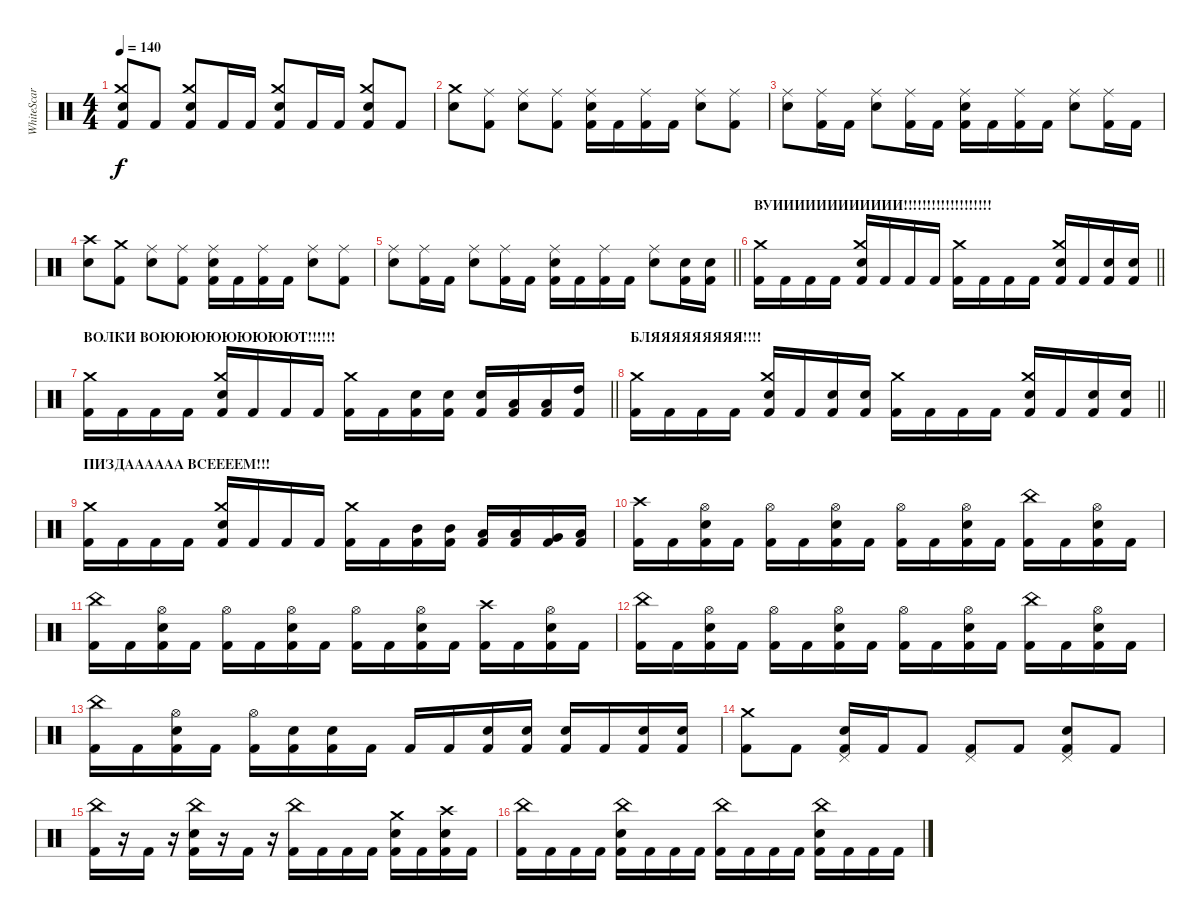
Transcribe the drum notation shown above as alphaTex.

\track ("WhiteScar " "WhiteScar ") {instrument percussion}
\staff {score}
\articulation defaults
\ts (4 4)
\tempo 140
\clef neutral
\ks c
("Snare (hit) 2" "Crash medium (hit)" "Kick (hit) 2").8{dy f} "Kick (hit) 2".8 ("Snare (hit) 2" "Crash medium (hit)" "Kick (hit) 2").8 "Kick (hit) 2".16 "Kick (hit) 2".16 ("Snare (hit) 2" "Crash medium (hit)" "Kick (hit) 2").8 "Kick (hit) 2".16 "Kick (hit) 2".16 ("Snare (hit) 2" "Crash medium (hit)" "Kick (hit) 2").8 "Kick (hit) 2".8 |
("Crash medium (hit)" "Snare (hit) 2").8 ("Ride (middle)" "Kick (hit) 2").8 ("Ride (middle)" "Snare (hit) 2").8 ("Ride (middle)" "Kick (hit) 2").8 ("Ride (middle)" "Snare (hit) 2" "Kick (hit) 2").16 "Kick (hit) 2".16 ("Ride (middle)" "Kick (hit) 2").16 "Kick (hit) 2".16 ("Ride (middle)" "Snare (hit) 2").8 ("Ride (middle)" "Kick (hit) 2").8 |
("Ride (middle)" "Snare (hit) 2").8 ("Ride (middle)" "Kick (hit) 2").16 "Kick (hit) 2".16 ("Ride (middle)" "Snare (hit) 2").8 ("Ride (middle)" "Kick (hit) 2").16 "Kick (hit) 2".16 ("Ride (middle)" "Snare (hit) 2" "Kick (hit) 2").16 "Kick (hit) 2".16 ("Ride (middle)" "Kick (hit) 2").16 "Kick (hit) 2".16 ("Ride (middle)" "Snare (hit) 2").8 ("Ride (middle)" "Kick (hit) 2").16 "Kick (hit) 2".16 |
("Crash high (hit)" "Snare (hit) 2").8 ("Crash medium (hit)" "Kick (hit) 2").8 ("Ride (middle)" "Snare (hit) 2").8 ("Ride (middle)" "Kick (hit) 2").8 ("Ride (middle)" "Snare (hit) 2" "Kick (hit) 2").16 "Kick (hit) 2".16 ("Ride (middle)" "Kick (hit) 2").16 "Kick (hit) 2".16 ("Ride (middle)" "Snare (hit) 2").8 ("Ride (middle)" "Kick (hit) 2").8 |
\barLineRight lightlight
("Ride (middle)" "Snare (hit) 2").8 ("Ride (middle)" "Kick (hit) 2").16 "Kick (hit) 2".16 ("Ride (middle)" "Snare (hit) 2").8 ("Ride (middle)" "Kick (hit) 2").16 "Kick (hit) 2".16 ("Ride (middle)" "Snare (hit) 2" "Kick (hit) 2").16 "Kick (hit) 2".16 ("Ride (middle)" "Kick (hit) 2").16 "Kick (hit) 2".16 ("Ride (middle)" "Snare (hit) 2").8 ("Snare (hit) 2" "Kick (hit) 2").16 ("Snare (hit) 2" "Kick (hit) 2").16 |
\section ("" "ВУИИИИИИИИИИИИ!!!!!!!!!!!!!!!!!!!")
\barLineRight lightlight
("Crash medium (hit)" "Kick (hit) 2").16 "Kick (hit) 2".16 "Kick (hit) 2".16 "Kick (hit) 2".16 ("Snare (hit) 2" "Crash medium (hit)" "Kick (hit) 2").16 "Kick (hit) 2".16 "Kick (hit) 2".16 "Kick (hit) 2".16 ("Crash medium (hit)" "Kick (hit) 2").16 "Kick (hit) 2".16 "Kick (hit) 2".16 "Kick (hit) 2".16 ("Snare (hit) 2" "Crash medium (hit)" "Kick (hit) 2").16 "Kick (hit) 2".16 ("Snare (hit) 2" "Kick (hit) 2").16 ("Snare (hit) 2" "Kick (hit) 2").16 |
\section ("" "ВОЛКИ ВОЮЮЮЮЮЮЮЮЮТ!!!!!!")
\barLineRight lightlight
("Crash medium (hit)" "Kick (hit) 2").16 "Kick (hit) 2".16 "Kick (hit) 2".16 "Kick (hit) 2".16 ("Snare (hit) 2" "Crash medium (hit)" "Kick (hit) 2").16 "Kick (hit) 2".16 "Kick (hit) 2".16 "Kick (hit) 2".16 ("Crash medium (hit)" "Kick (hit) 2").16 "Kick (hit) 2".16 ("Snare (hit) 2" "Kick (hit) 2").16 ("Snare (hit) 2" "Kick (hit) 2").16 ("Snare (hit) 2" "Kick (hit) 2").16 ("Low Tom (hit)" "Kick (hit) 2").16 ("Low Tom (hit)" "Kick (hit) 2").16 ("High Tom (hit)" "Kick (hit) 2").16 |
\section ("" "БЛЯЯЯЯЯЯЯЯЯ!!!!")
\barLineRight lightlight
("Crash medium (hit)" "Kick (hit) 2").16 "Kick (hit) 2".16 "Kick (hit) 2".16 "Kick (hit) 2".16 ("Snare (hit) 2" "Crash medium (hit)" "Kick (hit) 2").16 "Kick (hit) 2".16 ("Snare (hit) 2" "Kick (hit) 2").16 ("Snare (hit) 2" "Kick (hit) 2").16 ("Crash medium (hit)" "Kick (hit) 2").16 "Kick (hit) 2".16 "Kick (hit) 2".16 "Kick (hit) 2".16 ("Snare (hit) 2" "Crash medium (hit)" "Kick (hit) 2").16 "Kick (hit) 2".16 ("Snare (hit) 2" "Kick (hit) 2").16 ("Snare (hit) 2" "Kick (hit) 2").16 |
\section ("" "ПИЗДАААААА ВСЕЕЕЕМ!!!")
("Crash medium (hit)" "Kick (hit) 2").16 "Kick (hit) 2".16 "Kick (hit) 2".16 "Kick (hit) 2".16 ("Snare (hit) 2" "Crash medium (hit)" "Kick (hit) 2").16 "Kick (hit) 2".16 "Kick (hit) 2".16 "Kick (hit) 2".16 ("Crash medium (hit)" "Kick (hit) 2").16 "Kick (hit) 2".16 ("Mid Tom (hit)" "Kick (hit) 2").16 ("Mid Tom (hit)" "Kick (hit) 2").16 ("Low Tom (hit)" "Kick (hit) 2").16 ("Low Tom (hit)" "Kick (hit) 2").16 ("Very Low Tom (hit)" "Kick (hit) 2").16 ("Low Floor Tom (hit)" "Kick (hit) 2").16 |
("Crash high (hit)" "Kick (hit) 2").16 "Kick (hit) 2".16 ("Hi-Hat (open)" "Snare (hit) 2" "Kick (hit) 2").16 "Kick (hit) 2".16 ("Hi-Hat (open)" "Kick (hit) 2").16 "Kick (hit) 2".16 ("Hi-Hat (open)" "Snare (hit) 2" "Kick (hit) 2").16 "Kick (hit) 2".16 ("Hi-Hat (open)" "Kick (hit) 2").16 "Kick (hit) 2".16 ("Hi-Hat (open)" "Snare (hit) 2" "Kick (hit) 2").16 "Kick (hit) 2".16 ("China (hit)" "Kick (hit) 2").16 "Kick (hit) 2".16 ("Hi-Hat (open)" "Snare (hit) 2" "Kick (hit) 2").16 "Kick (hit) 2".16 |
("China (hit)" "Kick (hit) 2").16 "Kick (hit) 2".16 ("Hi-Hat (open)" "Snare (hit) 2" "Kick (hit) 2").16 "Kick (hit) 2".16 ("Hi-Hat (open)" "Kick (hit) 2").16 "Kick (hit) 2".16 ("Hi-Hat (open)" "Snare (hit) 2" "Kick (hit) 2").16 "Kick (hit) 2".16 ("Hi-Hat (open)" "Kick (hit) 2").16 "Kick (hit) 2".16 ("Hi-Hat (open)" "Snare (hit) 2" "Kick (hit) 2").16 "Kick (hit) 2".16 ("Crash high (hit)" "Kick (hit) 2").16 "Kick (hit) 2".16 ("Hi-Hat (open)" "Snare (hit) 2" "Kick (hit) 2").16 "Kick (hit) 2".16 |
("China (hit)" "Kick (hit) 2").16 "Kick (hit) 2".16 ("Hi-Hat (open)" "Snare (hit) 2" "Kick (hit) 2").16 "Kick (hit) 2".16 ("Hi-Hat (open)" "Kick (hit) 2").16 "Kick (hit) 2".16 ("Hi-Hat (open)" "Snare (hit) 2" "Kick (hit) 2").16 "Kick (hit) 2".16 ("Hi-Hat (open)" "Kick (hit) 2").16 "Kick (hit) 2".16 ("Hi-Hat (open)" "Snare (hit) 2" "Kick (hit) 2").16 "Kick (hit) 2".16 ("China (hit)" "Kick (hit) 2").16 "Kick (hit) 2".16 ("Hi-Hat (open)" "Snare (hit) 2" "Kick (hit) 2").16 "Kick (hit) 2".16 |
("China (hit)" "Kick (hit) 2").16 "Kick (hit) 2".16 ("Hi-Hat (open)" "Snare (hit) 2" "Kick (hit) 2").16 "Kick (hit) 2".16 ("Hi-Hat (open)" "Kick (hit) 2").16 ("Snare (hit) 2" "Kick (hit) 2").16 ("Snare (hit) 2" "Kick (hit) 2").16 "Kick (hit) 2".16 "Kick (hit) 2".16 "Kick (hit) 2".16 ("Snare (hit) 2" "Kick (hit) 2").16 ("Snare (hit) 2" "Kick (hit) 2").16 ("Snare (hit) 2" "Kick (hit) 2").16 "Kick (hit) 2".16 ("Snare (hit) 2" "Kick (hit) 2").16 ("Snare (hit) 2" "Kick (hit) 2").16 |
("Crash medium (hit)" "Kick (hit) 2").8 "Kick (hit) 2".8 ("Pedal Hi-Hat (hit)" "Snare (hit) 2" "Kick (hit) 2").16 "Kick (hit) 2".16 "Kick (hit) 2".8 ("Pedal Hi-Hat (hit)" "Kick (hit) 2").8 "Kick (hit) 2".8 ("Pedal Hi-Hat (hit)" "Snare (hit) 2" "Kick (hit) 2").8 "Kick (hit) 2".8 |
("China (hit)" "Kick (hit) 2").16 r.16 "Kick (hit) 2".16 r.16 ("China (hit)" "Snare (hit) 2" "Kick (hit) 2").16 r.16 "Kick (hit) 2".16 r.16 ("China (hit)" "Kick (hit) 2").16 "Kick (hit) 2".16 "Kick (hit) 2".16 "Kick (hit) 2".16 ("Crash medium (hit)" "Snare (hit) 2" "Kick (hit) 2").16 "Kick (hit) 2".16 ("Crash high (hit)" "Snare (hit) 2" "Kick (hit) 2").16 "Kick (hit) 2".16 |
("China (hit)" "Kick (hit) 2").16 "Kick (hit) 2".16 "Kick (hit) 2".16 "Kick (hit) 2".16 ("China (hit)" "Snare (hit) 2" "Kick (hit) 2").16 "Kick (hit) 2".16 "Kick (hit) 2".16 "Kick (hit) 2".16 ("China (hit)" "Kick (hit) 2").16 "Kick (hit) 2".16 "Kick (hit) 2".16 "Kick (hit) 2".16 ("China (hit)" "Snare (hit) 2" "Kick (hit) 2").16 "Kick (hit) 2".16 "Kick (hit) 2".16 "Kick (hit) 2".16
